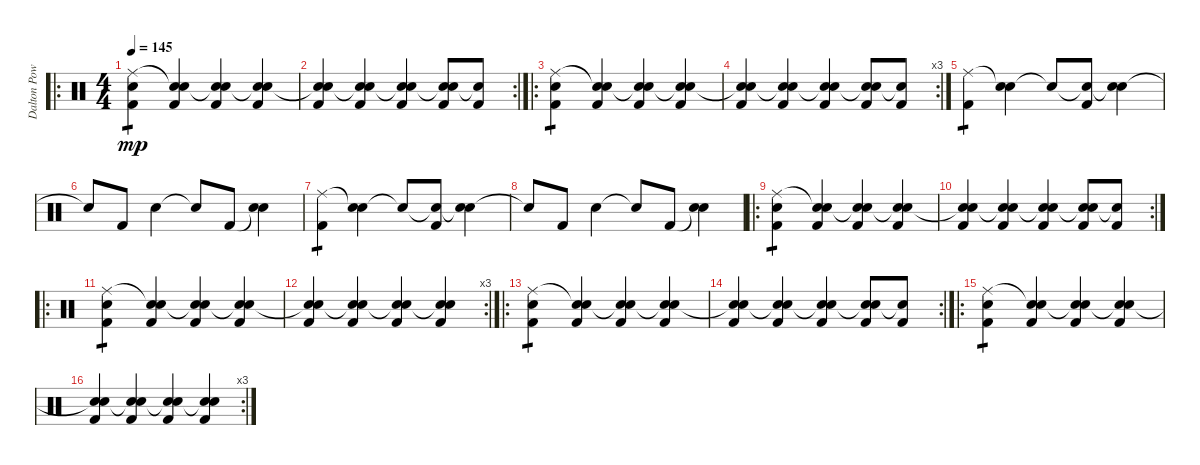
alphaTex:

\track ("Dalton Powell" "Dalton Pow") {instrument percussion}
\staff {score}
\articulation defaults
\ro
\ts (4 4)
\tempo 145
\clef neutral
\ks c
("Ride (middle)" "Snare (hit) 2" "Kick (hit) 2").4{tp 1 dy mp} ("Snare (hit)"{t} "Snare (hit) 2" "Kick (hit) 2").4 ("Snare (hit)"{t} "Snare (hit) 2" "Kick (hit) 2").4 ("Snare (hit)"{t} "Snare (hit) 2" "Kick (hit) 2").4 |
\rc 2
("Snare (hit)"{t} "Snare (hit) 2" "Kick (hit) 2").4 ("Snare (hit)"{t} "Snare (hit) 2" "Kick (hit) 2").4 ("Snare (hit)"{t} "Snare (hit) 2" "Kick (hit) 2").4 ("Snare (hit)"{t} "Snare (hit) 2" "Kick (hit) 2").8 ("Snare (hit)"{t} "Kick (hit) 2").8 |
\ro
("Ride (middle)" "Snare (hit) 2" "Kick (hit) 2").4{tp 1} ("Snare (hit)"{t} "Snare (hit) 2" "Kick (hit) 2").4 ("Snare (hit)"{t} "Snare (hit) 2" "Kick (hit) 2").4 ("Snare (hit)"{t} "Snare (hit) 2" "Kick (hit) 2").4 |
\rc 3
("Snare (hit)"{t} "Snare (hit) 2" "Kick (hit) 2").4 ("Snare (hit)"{t} "Snare (hit) 2" "Kick (hit) 2").4 ("Snare (hit)"{t} "Snare (hit) 2" "Kick (hit) 2").4 ("Snare (hit)"{t} "Snare (hit) 2" "Kick (hit) 2").8 ("Snare (hit)"{t} "Kick (hit) 2").8 |
("Ride (middle)" "Kick (hit) 2").4{tp 1} ("Snare (hit)"{t} "Snare (hit) 2").4 "Snare (hit)"{t}.8 ("Snare (hit)"{t} "Kick (hit) 2").8 ("Snare (hit)"{t} "Snare (hit) 2").4 |
"Snare (hit)"{t}.8 "Kick (hit) 2".8 "Snare (hit) 2".4 "Snare (hit)"{t}.8 "Kick (hit) 2".8 ("Snare (hit)"{t} "Snare (hit) 2").4 |
("Ride (middle)" "Kick (hit) 2").4{tp 1} ("Snare (hit)"{t} "Snare (hit) 2").4 "Snare (hit)"{t}.8 ("Snare (hit)"{t} "Kick (hit) 2").8 ("Snare (hit)"{t} "Snare (hit) 2").4 |
"Snare (hit)"{t}.8 "Kick (hit) 2".8 "Snare (hit) 2".4 "Snare (hit)"{t}.8 "Kick (hit) 2".8 ("Snare (hit)"{t} "Snare (hit) 2").4 |
\ro
("Ride (middle)" "Snare (hit) 2" "Kick (hit) 2").4{tp 1} ("Snare (hit)"{t} "Snare (hit) 2" "Kick (hit) 2").4 ("Snare (hit)"{t} "Snare (hit) 2" "Kick (hit) 2").4 ("Snare (hit)"{t} "Snare (hit) 2" "Kick (hit) 2").4 |
\rc 2
("Snare (hit)"{t} "Snare (hit) 2" "Kick (hit) 2").4 ("Snare (hit)"{t} "Snare (hit) 2" "Kick (hit) 2").4 ("Snare (hit)"{t} "Snare (hit) 2" "Kick (hit) 2").4 ("Snare (hit)"{t} "Snare (hit) 2" "Kick (hit) 2").8 ("Snare (hit)"{t} "Kick (hit) 2").8 |
\ro
("Ride (middle)" "Snare (hit) 2" "Kick (hit) 2").4{tp 1} ("Snare (hit)"{t} "Snare (hit) 2" "Kick (hit) 2").4 ("Snare (hit)"{t} "Snare (hit) 2" "Kick (hit) 2").4 ("Snare (hit)"{t} "Snare (hit) 2" "Kick (hit) 2").4 |
\rc 3
("Snare (hit)"{t} "Snare (hit) 2" "Kick (hit) 2").4 ("Snare (hit)"{t} "Snare (hit) 2" "Kick (hit) 2").4 ("Snare (hit)"{t} "Snare (hit) 2" "Kick (hit) 2").4 ("Snare (hit)"{t} "Snare (hit) 2" "Kick (hit) 2").4 |
\ro
("Ride (middle)" "Snare (hit) 2" "Kick (hit) 2").4{tp 1} ("Snare (hit)"{t} "Snare (hit) 2" "Kick (hit) 2").4 ("Snare (hit)"{t} "Snare (hit) 2" "Kick (hit) 2").4 ("Snare (hit)"{t} "Snare (hit) 2" "Kick (hit) 2").4 |
\rc 2
("Snare (hit)"{t} "Snare (hit) 2" "Kick (hit) 2").4 ("Snare (hit)"{t} "Snare (hit) 2" "Kick (hit) 2").4 ("Snare (hit)"{t} "Snare (hit) 2" "Kick (hit) 2").4 ("Snare (hit)"{t} "Snare (hit) 2" "Kick (hit) 2").8 ("Snare (hit)"{t} "Kick (hit) 2").8 |
\ro
("Ride (middle)" "Snare (hit) 2" "Kick (hit) 2").4{tp 1} ("Snare (hit)"{t} "Snare (hit) 2" "Kick (hit) 2").4 ("Snare (hit)"{t} "Snare (hit) 2" "Kick (hit) 2").4 ("Snare (hit)"{t} "Snare (hit) 2" "Kick (hit) 2").4 |
\rc 3
("Snare (hit)"{t} "Snare (hit) 2" "Kick (hit) 2").4 ("Snare (hit)"{t} "Snare (hit) 2" "Kick (hit) 2").4 ("Snare (hit)"{t} "Snare (hit) 2" "Kick (hit) 2").4 ("Snare (hit)"{t} "Snare (hit) 2" "Kick (hit) 2").4
